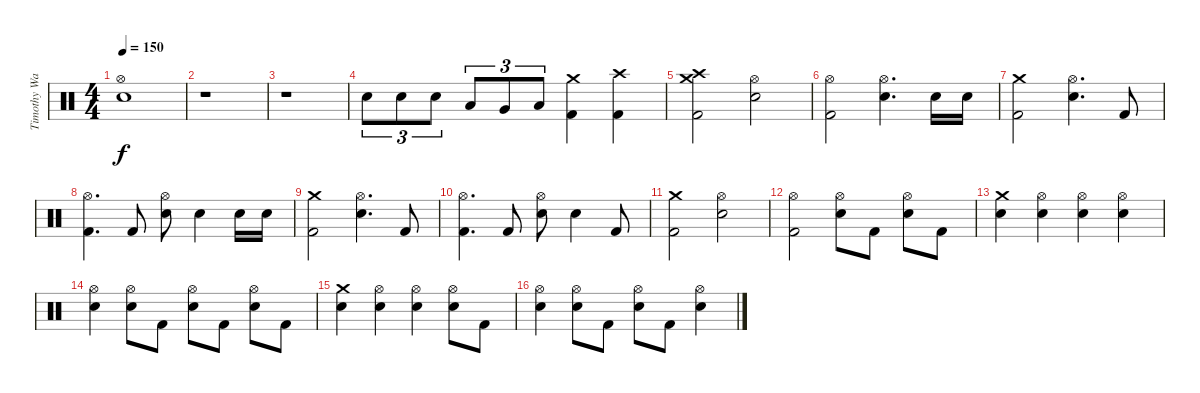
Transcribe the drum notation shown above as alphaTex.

\track ("Timothy Watts" "Timothy Wa") {instrument percussion}
\staff {score}
\articulation defaults
\ts (4 4)
\tempo 150
\clef neutral
\ks c
("Hi-Hat (open)" "Electric Snare (hit)").1{dy f} |
r.1 |
r.1 |
"Electric Snare (hit)".8{tu (3 2)} "Electric Snare (hit)".8{tu (3 2)} "Electric Snare (hit)".8{tu (3 2)} "Low Tom (hit)".8{tu (3 2)} "Very Low Tom (hit)".8{tu (3 2)} "Low Floor Tom (hit)".8{tu (3 2)} ("Crash medium (hit)" "Kick (hit) 2").4 ("Crash high (hit)" "Kick (hit) 2").4 |
("Crash medium (hit)" "Crash high (hit)" "Kick (hit) 2").2 ("Hi-Hat (open)" "Electric Snare (hit)").2 |
("Hi-Hat (open)" "Kick (hit) 2").2 ("Hi-Hat (open)" "Electric Snare (hit)").4{d} "Electric Snare (hit)".16 "Electric Snare (hit)".16 |
("Crash medium (hit)" "Kick (hit) 2").2 ("Hi-Hat (open)" "Electric Snare (hit)").4{d} "Kick (hit) 2".8 |
("Hi-Hat (open)" "Kick (hit) 2").4{d} "Kick (hit) 2".8 ("Hi-Hat (open)" "Electric Snare (hit)").8 "Electric Snare (hit)".4 "Electric Snare (hit)".16 "Electric Snare (hit)".16 |
("Crash medium (hit)" "Kick (hit) 2").2 ("Hi-Hat (open)" "Electric Snare (hit)").4{d} "Kick (hit) 2".8 |
("Hi-Hat (open)" "Kick (hit) 2").4{d} "Kick (hit) 2".8 ("Hi-Hat (open)" "Electric Snare (hit)").8 "Electric Snare (hit)".4 "Kick (hit) 2".8 |
("Crash medium (hit)" "Kick (hit) 2").2 ("Hi-Hat (open)" "Electric Snare (hit)").2 |
("Hi-Hat (open)" "Kick (hit) 2").2 ("Hi-Hat (open)" "Electric Snare (hit)").8 "Kick (hit) 2".8 ("Hi-Hat (open)" "Electric Snare (hit)").8 "Kick (hit) 2".8 |
("Crash medium (hit)" "Electric Snare (hit)").4 ("Hi-Hat (open)" "Electric Snare (hit)").4 ("Hi-Hat (open)" "Electric Snare (hit)").4 ("Hi-Hat (open)" "Electric Snare (hit)").4 |
("Hi-Hat (open)" "Electric Snare (hit)").4 ("Hi-Hat (open)" "Electric Snare (hit)").8 "Kick (hit) 2".8 ("Hi-Hat (open)" "Electric Snare (hit)").8 "Kick (hit) 2".8 ("Hi-Hat (open)" "Electric Snare (hit)").8 "Kick (hit) 2".8 |
("Crash medium (hit)" "Electric Snare (hit)").4 ("Hi-Hat (open)" "Electric Snare (hit)").4 ("Hi-Hat (open)" "Electric Snare (hit)").4 ("Hi-Hat (open)" "Electric Snare (hit)").8 "Kick (hit) 2".8 |
("Hi-Hat (open)" "Electric Snare (hit)").4 ("Hi-Hat (open)" "Electric Snare (hit)").8 "Kick (hit) 2".8 ("Hi-Hat (open)" "Electric Snare (hit)").8 "Kick (hit) 2".8 ("Hi-Hat (open)" "Electric Snare (hit)").4
